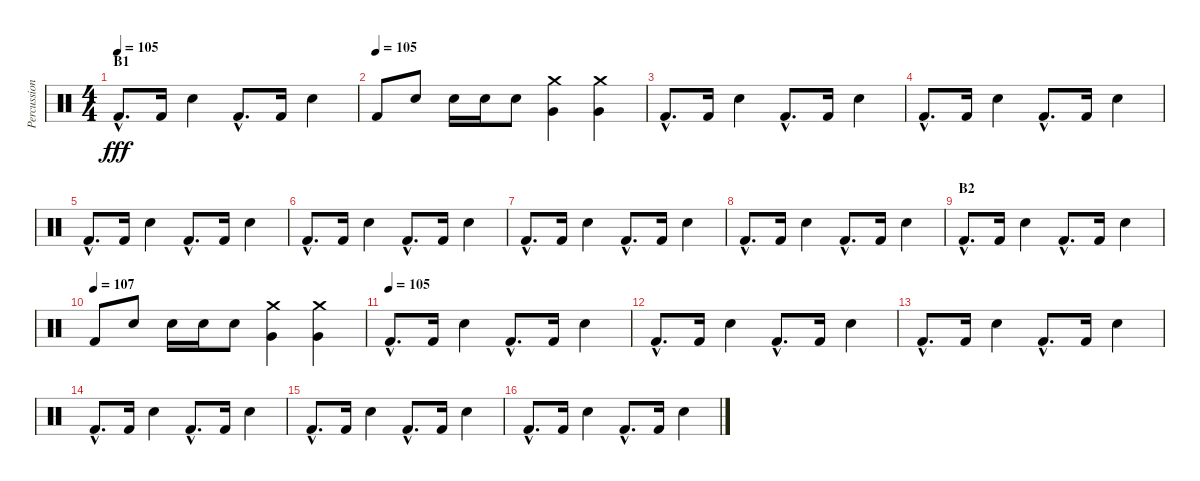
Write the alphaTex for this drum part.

\track ("Percussion" "Percussion") {instrument percussion}
\staff {score}
\articulation defaults
\ts (4 4)
\section ("" "B1")
\tempo 105
\clef neutral
\ks c "Kick (hit) 2"{hac}.8{d dy fff} "Kick (hit) 2".16 "Electric Snare (hit)".4 "Kick (hit) 2"{hac}.8{d} "Kick (hit) 2".16 "Electric Snare (hit)".4
|
\tempo (105)
"Kick (hit) 2".8 "Electric Snare (hit)".8 "Electric Snare (hit)".16 "Electric Snare (hit)".16 "Electric Snare (hit)".8 ("Very Low Tom (hit)" "Crash medium (hit)").4 ("Very Low Tom (hit)" "Crash medium (hit)").4 |
"Kick (hit) 2"{hac}.8{d} "Kick (hit) 2".16 "Electric Snare (hit)".4 "Kick (hit) 2"{hac}.8{d} "Kick (hit) 2".16 "Electric Snare (hit)".4 |
"Kick (hit) 2"{hac}.8{d} "Kick (hit) 2".16 "Electric Snare (hit)".4 "Kick (hit) 2"{hac}.8{d} "Kick (hit) 2".16 "Electric Snare (hit)".4 |
"Kick (hit) 2"{hac}.8{d} "Kick (hit) 2".16 "Electric Snare (hit)".4 "Kick (hit) 2"{hac}.8{d} "Kick (hit) 2".16 "Electric Snare (hit)".4 |
"Kick (hit) 2"{hac}.8{d} "Kick (hit) 2".16 "Electric Snare (hit)".4 "Kick (hit) 2"{hac}.8{d} "Kick (hit) 2".16 "Electric Snare (hit)".4 |
"Kick (hit) 2"{hac}.8{d} "Kick (hit) 2".16 "Electric Snare (hit)".4 "Kick (hit) 2"{hac}.8{d} "Kick (hit) 2".16 "Electric Snare (hit)".4 |
"Kick (hit) 2"{hac}.8{d} "Kick (hit) 2".16 "Electric Snare (hit)".4 "Kick (hit) 2"{hac}.8{d} "Kick (hit) 2".16 "Electric Snare (hit)".4 |
\section ("" "B2")
"Kick (hit) 2"{hac}.8{d} "Kick (hit) 2".16 "Electric Snare (hit)".4 "Kick (hit) 2"{hac}.8{d} "Kick (hit) 2".16 "Electric Snare (hit)".4 |
\tempo (107)
"Kick (hit) 2".8 "Electric Snare (hit)".8 "Electric Snare (hit)".16 "Electric Snare (hit)".16 "Electric Snare (hit)".8 ("Very Low Tom (hit)" "Crash medium (hit)").4 ("Very Low Tom (hit)" "Crash medium (hit)").4 |
\tempo (105)
"Kick (hit) 2"{hac}.8{d} "Kick (hit) 2".16 "Electric Snare (hit)".4 "Kick (hit) 2"{hac}.8{d} "Kick (hit) 2".16 "Electric Snare (hit)".4 |
"Kick (hit) 2"{hac}.8{d} "Kick (hit) 2".16 "Electric Snare (hit)".4 "Kick (hit) 2"{hac}.8{d} "Kick (hit) 2".16 "Electric Snare (hit)".4 |
"Kick (hit) 2"{hac}.8{d} "Kick (hit) 2".16 "Electric Snare (hit)".4 "Kick (hit) 2"{hac}.8{d} "Kick (hit) 2".16 "Electric Snare (hit)".4 |
"Kick (hit) 2"{hac}.8{d} "Kick (hit) 2".16 "Electric Snare (hit)".4 "Kick (hit) 2"{hac}.8{d} "Kick (hit) 2".16 "Electric Snare (hit)".4 |
"Kick (hit) 2"{hac}.8{d} "Kick (hit) 2".16 "Electric Snare (hit)".4 "Kick (hit) 2"{hac}.8{d} "Kick (hit) 2".16 "Electric Snare (hit)".4 |
"Kick (hit) 2"{hac}.8{d} "Kick (hit) 2".16 "Electric Snare (hit)".4 "Kick (hit) 2"{hac}.8{d} "Kick (hit) 2".16 "Electric Snare (hit)".4
